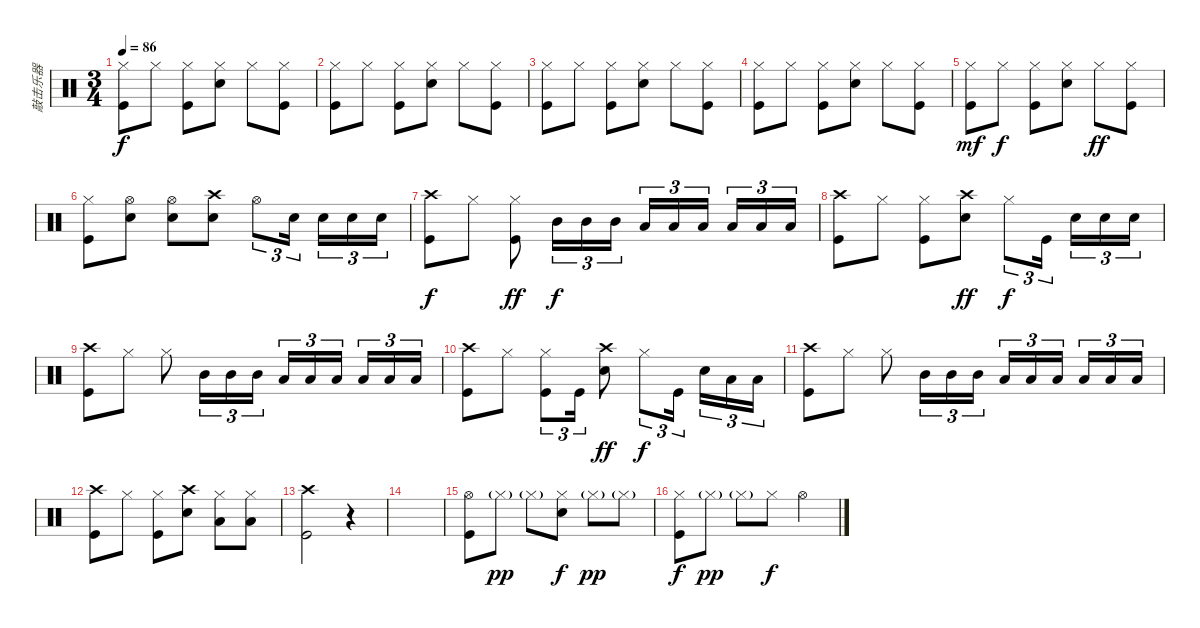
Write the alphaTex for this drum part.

\track ("敲击乐器" "敲击乐器") {instrument percussion}
\staff {score}
\articulation defaults
\ts (3 4)
\tempo 86
\clef neutral
\ks c
("Hi-Hat (closed)" "Kick (hit)").8{dy f} "Hi-Hat (closed)".8 ("Hi-Hat (closed)" "Kick (hit)").8 ("Hi-Hat (closed)" "Snare (hit) 2").8 "Hi-Hat (closed)".8 ("Hi-Hat (closed)" "Kick (hit)").8 |
("Hi-Hat (closed)" "Kick (hit)").8 "Hi-Hat (closed)".8 ("Hi-Hat (closed)" "Kick (hit)").8 ("Hi-Hat (closed)" "Snare (hit) 2").8 "Hi-Hat (closed)".8 ("Hi-Hat (closed)" "Kick (hit)").8 |
("Hi-Hat (closed)" "Kick (hit)").8 "Hi-Hat (closed)".8 ("Hi-Hat (closed)" "Kick (hit)").8 ("Hi-Hat (closed)" "Snare (hit) 2").8 "Hi-Hat (closed)".8 ("Hi-Hat (closed)" "Kick (hit)").8 |
("Hi-Hat (closed)" "Kick (hit)").8 "Hi-Hat (closed)".8 ("Hi-Hat (closed)" "Kick (hit)").8 ("Hi-Hat (closed)" "Snare (hit) 2").8 "Hi-Hat (closed)".8 ("Hi-Hat (closed)" "Kick (hit)").8 |
("Hi-Hat (closed)" "Kick (hit)").8{dy mf} "Hi-Hat (closed)".8{dy f} ("Hi-Hat (closed)" "Kick (hit)").8 ("Hi-Hat (closed)" "Snare (hit) 2").8 "Hi-Hat (closed)".8{dy ff} ("Hi-Hat (closed)" "Kick (hit)").8 |
("Hi-Hat (closed)" "Kick (hit)").8 ("Hi-Hat (open)" "Snare (hit) 2").8 ("Hi-Hat (open)" "Snare (hit) 2").8 ("Crash high (hit)" "Snare (hit) 2").8 "Hi-Hat (open)".8{tu (3 2)} "Snare (hit) 2".16{tu (3 2) beam splitsecondary} "Snare (hit) 2".16{tu (3 2)} "Snare (hit) 2".16{tu (3 2)} "Snare (hit) 2".16{tu (3 2)} |
("Crash high (hit)" "Kick (hit)").8{dy f} "Hi-Hat (closed)".8 ("Hi-Hat (closed)" "Kick (hit)").8{dy ff} "Mid Tom (hit)".16{tu (3 2) dy f} "Mid Tom (hit)".16{tu (3 2)} "Mid Tom (hit)".16{tu (3 2)} "Low Tom (hit)".16{tu (3 2)} "Low Tom (hit)".16{tu (3 2)} "Low Tom (hit)".16{tu (3 2) beam splitsecondary} "Low Floor Tom (hit)".16{tu (3 2)} "Low Floor Tom (hit)".16{tu (3 2)} "Low Floor Tom (hit)".16{tu (3 2)} |
("Crash high (hit)" "Kick (hit)").8 "Hi-Hat (closed)".8 ("Hi-Hat (closed)" "Kick (hit)").8 ("Crash high (hit)" "Snare (hit) 2").8{dy ff} "Hi-Hat (closed)".8{tu (3 2) dy f} "Kick (hit)".16{tu (3 2) beam splitsecondary} "Snare (hit) 2".16{tu (3 2)} "Snare (hit) 2".16{tu (3 2)} "Snare (hit) 2".16{tu (3 2)} |
("Crash high (hit)" "Kick (hit)").8 "Hi-Hat (closed)".8 "Hi-Hat (closed)".8 "Mid Tom (hit)".16{tu (3 2)} "Mid Tom (hit)".16{tu (3 2)} "Mid Tom (hit)".16{tu (3 2)} "Low Tom (hit)".16{tu (3 2)} "Low Tom (hit)".16{tu (3 2)} "Low Tom (hit)".16{tu (3 2) beam splitsecondary} "Low Floor Tom (hit)".16{tu (3 2)} "Low Floor Tom (hit)".16{tu (3 2)} "Low Floor Tom (hit)".16{tu (3 2)} |
("Crash high (hit)" "Kick (hit)").8 "Hi-Hat (closed)".8 ("Hi-Hat (closed)" "Kick (hit)").8{tu (3 2)} "Kick (hit)".16{tu (3 2)} ("Crash high (hit)" "Snare (hit) 2").8{dy ff} "Hi-Hat (closed)".8{tu (3 2) dy f} "Kick (hit)".16{tu (3 2) beam splitsecondary} "Snare (hit) 2".16{tu (3 2)} "Low Tom (hit)".16{tu (3 2)} "Low Floor Tom (hit)".16{tu (3 2)} |
("Crash high (hit)" "Kick (hit)").8 "Hi-Hat (closed)".8 "Hi-Hat (closed)".8 "Mid Tom (hit)".16{tu (3 2)} "Mid Tom (hit)".16{tu (3 2)} "Mid Tom (hit)".16{tu (3 2)} "Low Tom (hit)".16{tu (3 2)} "Low Tom (hit)".16{tu (3 2)} "Low Tom (hit)".16{tu (3 2) beam splitsecondary} "Low Floor Tom (hit)".16{tu (3 2)} "Low Floor Tom (hit)".16{tu (3 2)} "Low Floor Tom (hit)".16{tu (3 2)} |
("Crash high (hit)" "Kick (hit)").8 "Hi-Hat (closed)".8 ("Hi-Hat (closed)" "Kick (hit)").8 ("Crash high (hit)" "Snare (hit) 2").8 ("Hi-Hat (closed)" "Low Tom (hit)").8 ("Hi-Hat (closed)" "Low Floor Tom (hit)").8 |
("Crash high (hit)" "Kick (hit)").2 r.4 |
|
("Hi-Hat (open)" "Kick (hit)").8 "Hi-Hat (closed)"{g}.8{dy pp} "Hi-Hat (closed)"{g}.8 ("Hi-Hat (closed)" "Snare (hit) 2").8{dy f} "Hi-Hat (closed)"{g}.8{dy pp} "Hi-Hat (closed)"{g}.8 |
("Hi-Hat (closed)" "Kick (hit)").8{dy f} "Hi-Hat (closed)"{g}.8{dy pp} "Hi-Hat (closed)"{g}.8 "Hi-Hat (closed)".8{dy f} "Hi-Hat (open)".4
